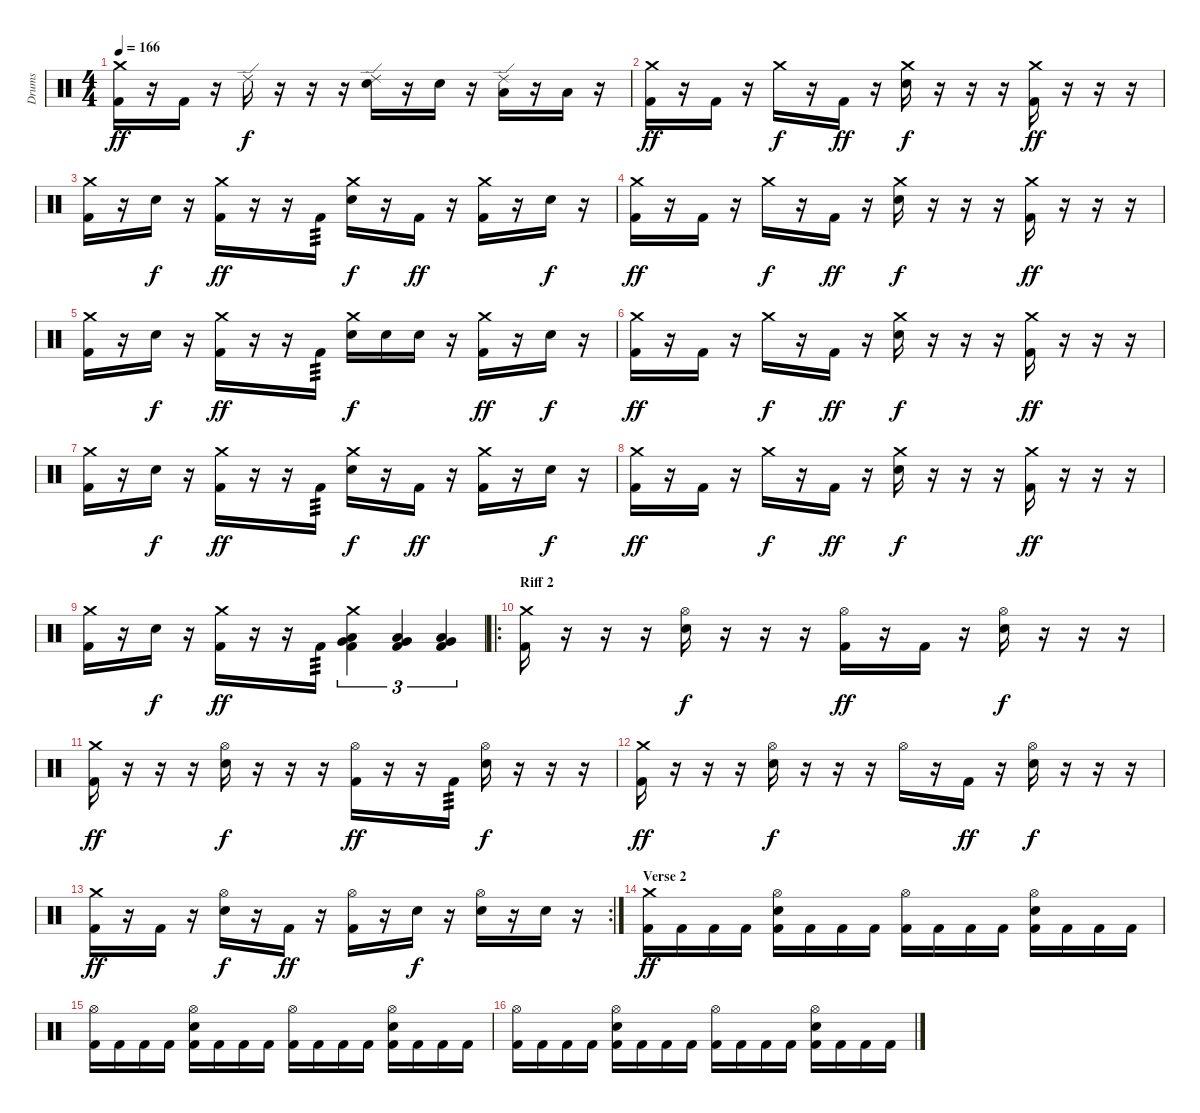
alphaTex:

\track ("Drums" "Drums") {instrument percussion}
\staff {score}
\articulation defaults
\ts (4 4)
\tempo 166
\clef neutral
\ks c
("Crash medium (hit)" "Kick (hit) 2").16{dy ff} r.16 "Kick (hit) 2".16 r.16 "Ride (edge) 2".16{dy f} r.16 r.16 r.16 ("Ride (edge) 2" "Electric Snare (hit)").16 r.16 "Electric Snare (hit)".16 r.16 ("Ride (edge) 2" "Low Tom (hit)").16 r.16 "Low Tom (hit)".16 r.16 |
("Crash medium (hit)" "Kick (hit) 2").16{dy ff} r.16 "Kick (hit) 2".16 r.16 "Crash medium (hit)".16{dy f} r.16 "Kick (hit) 2".16{dy ff} r.16 ("Crash medium (hit)" "Electric Snare (hit)").16{dy f} r.16 r.16 r.16 ("Crash medium (hit)" "Kick (hit) 2").16{dy ff} r.16 r.16 r.16 |
("Crash medium (hit)" "Kick (hit) 2").16 r.16 "Electric Snare (hit)".16{dy f} r.16 ("Crash medium (hit)" "Kick (hit) 2").16{dy ff} r.16 r.16 "Kick (hit) 2".16{tp 3} ("Crash medium (hit)" "Electric Snare (hit)").16{dy f} r.16 "Kick (hit) 2".16{dy ff} r.16 ("Crash medium (hit)" "Kick (hit) 2").16 r.16 "Electric Snare (hit)".16{dy f} r.16 |
("Crash medium (hit)" "Kick (hit) 2").16{dy ff} r.16 "Kick (hit) 2".16 r.16 "Crash medium (hit)".16{dy f} r.16 "Kick (hit) 2".16{dy ff} r.16 ("Crash medium (hit)" "Electric Snare (hit)").16{dy f} r.16 r.16 r.16 ("Crash medium (hit)" "Kick (hit) 2").16{dy ff} r.16 r.16 r.16 |
("Crash medium (hit)" "Kick (hit) 2").16 r.16 "Electric Snare (hit)".16{dy f} r.16 ("Crash medium (hit)" "Kick (hit) 2").16{dy ff} r.16 r.16 "Kick (hit) 2".16{tp 3} ("Crash medium (hit)" "Electric Snare (hit)").16{dy f} "Electric Snare (hit)".16 "Electric Snare (hit)".16 r.16 ("Crash medium (hit)" "Kick (hit) 2").16{dy ff} r.16 "Electric Snare (hit)".16{dy f} r.16 |
("Crash medium (hit)" "Kick (hit) 2").16{dy ff} r.16 "Kick (hit) 2".16 r.16 "Crash medium (hit)".16{dy f} r.16 "Kick (hit) 2".16{dy ff} r.16 ("Crash medium (hit)" "Electric Snare (hit)").16{dy f} r.16 r.16 r.16 ("Crash medium (hit)" "Kick (hit) 2").16{dy ff} r.16 r.16 r.16 |
("Crash medium (hit)" "Kick (hit) 2").16 r.16 "Electric Snare (hit)".16{dy f} r.16 ("Crash medium (hit)" "Kick (hit) 2").16{dy ff} r.16 r.16 "Kick (hit) 2".16{tp 3} ("Crash medium (hit)" "Electric Snare (hit)").16{dy f} r.16 "Kick (hit) 2".16{dy ff} r.16 ("Crash medium (hit)" "Kick (hit) 2").16 r.16 "Electric Snare (hit)".16{dy f} r.16 |
("Crash medium (hit)" "Kick (hit) 2").16{dy ff} r.16 "Kick (hit) 2".16 r.16 "Crash medium (hit)".16{dy f} r.16 "Kick (hit) 2".16{dy ff} r.16 ("Crash medium (hit)" "Electric Snare (hit)").16{dy f} r.16 r.16 r.16 ("Crash medium (hit)" "Kick (hit) 2").16{dy ff} r.16 r.16 r.16 |
("Crash medium (hit)" "Kick (hit) 2").16 r.16 "Electric Snare (hit)".16{dy f} r.16 ("Crash medium (hit)" "Kick (hit) 2").16{dy ff} r.16 r.16 "Kick (hit) 2".16{tp 3} ("Crash medium (hit)" "Low Floor Tom (hit)" "Very Low Tom (hit)" "Kick (hit) 2").4{tu (3 2)} ("Low Floor Tom (hit)" "Very Low Tom (hit)" "Kick (hit) 2").4{tu (3 2)} ("Low Floor Tom (hit)" "Very Low Tom (hit)" "Kick (hit) 2").4{tu (3 2)} |
\ro
\section ("" "Riff 2")
("Crash medium (hit)" "Kick (hit) 2").16 r.16 r.16 r.16 ("Hi-Hat (open)" "Electric Snare (hit)").16{dy f} r.16 r.16 r.16 ("Hi-Hat (open)" "Kick (hit) 2").16{dy ff} r.16 "Kick (hit) 2".16 r.16 ("Hi-Hat (open)" "Electric Snare (hit)").16{dy f} r.16 r.16 r.16 |
("Crash medium (hit)" "Kick (hit) 2").16{dy ff} r.16 r.16 r.16 ("Hi-Hat (open)" "Electric Snare (hit)").16{dy f} r.16 r.16 r.16 ("Hi-Hat (open)" "Kick (hit) 2").16{dy ff} r.16 r.16 "Kick (hit) 2".16{tp 3} ("Hi-Hat (open)" "Electric Snare (hit)").16{dy f} r.16 r.16 r.16 |
("Crash medium (hit)" "Kick (hit) 2").16{dy ff} r.16 r.16 r.16 ("Hi-Hat (open)" "Electric Snare (hit)").16{dy f} r.16 r.16 r.16 "Hi-Hat (open)".16 r.16 "Kick (hit) 2".16{dy ff} r.16 ("Hi-Hat (open)" "Electric Snare (hit)").16{dy f} r.16 r.16 r.16 |
\rc 2
("Crash medium (hit)" "Kick (hit) 2").16{dy ff} r.16 "Kick (hit) 2".16 r.16 ("Hi-Hat (open)" "Electric Snare (hit)").16{dy f} r.16 "Kick (hit) 2".16{dy ff} r.16 ("Hi-Hat (open)" "Kick (hit) 2").16 r.16 "Electric Snare (hit)".16{dy f} r.16 ("Hi-Hat (open)" "Electric Snare (hit)").16 r.16 "Electric Snare (hit)".16 r.16 |
\section ("" "Verse 2")
("Crash medium (hit)" "Kick (hit) 2").16{dy ff} "Kick (hit) 2".16 "Kick (hit) 2".16 "Kick (hit) 2".16 ("Hi-Hat (open)" "Electric Snare (hit)" "Kick (hit) 2").16 "Kick (hit) 2".16 "Kick (hit) 2".16 "Kick (hit) 2".16 ("Hi-Hat (open)" "Kick (hit) 2").16 "Kick (hit) 2".16 "Kick (hit) 2".16 "Kick (hit) 2".16 ("Hi-Hat (open)" "Electric Snare (hit)" "Kick (hit) 2").16 "Kick (hit) 2".16 "Kick (hit) 2".16 "Kick (hit) 2".16 |
("Hi-Hat (open)" "Kick (hit) 2").16 "Kick (hit) 2".16 "Kick (hit) 2".16 "Kick (hit) 2".16 ("Hi-Hat (open)" "Electric Snare (hit)" "Kick (hit) 2").16 "Kick (hit) 2".16 "Kick (hit) 2".16 "Kick (hit) 2".16 ("Hi-Hat (open)" "Kick (hit) 2").16 "Kick (hit) 2".16 "Kick (hit) 2".16 "Kick (hit) 2".16 ("Hi-Hat (open)" "Electric Snare (hit)" "Kick (hit) 2").16 "Kick (hit) 2".16 "Kick (hit) 2".16 "Kick (hit) 2".16 |
("Hi-Hat (open)" "Kick (hit) 2").16 "Kick (hit) 2".16 "Kick (hit) 2".16 "Kick (hit) 2".16 ("Hi-Hat (open)" "Electric Snare (hit)" "Kick (hit) 2").16 "Kick (hit) 2".16 "Kick (hit) 2".16 "Kick (hit) 2".16 ("Hi-Hat (open)" "Kick (hit) 2").16 "Kick (hit) 2".16 "Kick (hit) 2".16 "Kick (hit) 2".16 ("Hi-Hat (open)" "Electric Snare (hit)" "Kick (hit) 2").16 "Kick (hit) 2".16 "Kick (hit) 2".16 "Kick (hit) 2".16
